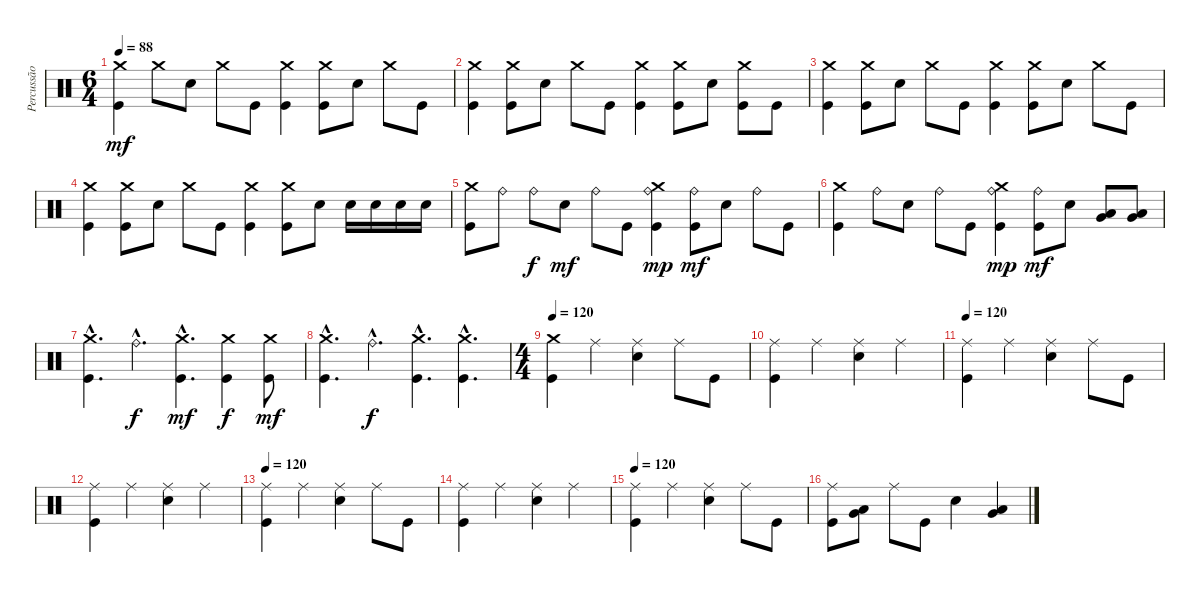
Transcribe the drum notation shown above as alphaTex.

\track ("Percussão" "Percussão") {instrument percussion}
\staff {score}
\articulation defaults
\ts (6 4)
\tempo 88
\clef neutral
\ks c
("Kick (hit)" "Crash medium (hit)").4{dy mf} "Crash medium (hit)".8 "Electric Snare (hit)".8 "Crash medium (hit)".8 "Kick (hit)".8 ("Kick (hit)" "Crash medium (hit)").4 ("Kick (hit)" "Crash medium (hit)").8 "Electric Snare (hit)".8 "Crash medium (hit)".8 "Kick (hit)".8 |
("Kick (hit)" "Crash medium (hit)").4 ("Kick (hit)" "Crash medium (hit)").8 "Electric Snare (hit)".8 "Crash medium (hit)".8 "Kick (hit)".8 ("Kick (hit)" "Crash medium (hit)").4 ("Kick (hit)" "Crash medium (hit)").8 "Electric Snare (hit)".8 ("Kick (hit)" "Crash medium (hit)").8 "Kick (hit)".8 |
("Kick (hit)" "Crash medium (hit)").4 ("Kick (hit)" "Crash medium (hit)").8 "Electric Snare (hit)".8 "Crash medium (hit)".8 "Kick (hit)".8 ("Kick (hit)" "Crash medium (hit)").4 ("Kick (hit)" "Crash medium (hit)").8 "Electric Snare (hit)".8 "Crash medium (hit)".8 "Kick (hit)".8 |
("Kick (hit)" "Crash medium (hit)").4 ("Kick (hit)" "Crash medium (hit)").8 "Electric Snare (hit)".8 "Crash medium (hit)".8 "Kick (hit)".8 ("Kick (hit)" "Crash medium (hit)").4 ("Kick (hit)" "Crash medium (hit)").8 "Electric Snare (hit)".8 "Electric Snare (hit)".16 "Electric Snare (hit)".16 "Electric Snare (hit)".16 "Electric Snare (hit)".16 |
("Kick (hit)" "Crash medium (hit)").8 "Ride (bell)".8 "Ride (bell)".8{dy f} "Electric Snare (hit)".8{dy mf} "Ride (bell)".8 "Kick (hit)".8 ("Kick (hit)" "Ride (bell)" "Crash medium (hit)").4{dy mp} ("Kick (hit)" "Ride (bell)").8{dy mf} "Electric Snare (hit)".8 "Ride (bell)".8 "Kick (hit)".8 |
("Kick (hit)" "Crash medium (hit)").4 "Ride (bell)".8 "Electric Snare (hit)".8 "Ride (bell)".8 "Kick (hit)".8 ("Kick (hit)" "Ride (bell)" "Crash medium (hit)").4{dy mp} ("Kick (hit)" "Ride (bell)").8{dy mf} "Electric Snare (hit)".8 ("Low Tom (hit)" "Very Low Tom (hit)").8 ("Very Low Tom (hit)" "Low Floor Tom (hit)").8 |
("Kick (hit)"{hac} "Crash medium (hit)"{hac}).4{d} "Ride (bell)"{hac}.4{d dy f} ("Kick (hit)"{hac} "Crash medium (hit)"{hac}).4{d dy mf} ("Kick (hit)" "Crash medium (hit)").4{dy f} ("Kick (hit)" "Crash medium (hit)").8{dy mf} |
("Kick (hit)"{hac} "Crash medium (hit)"{hac}).4{d} "Ride (bell)"{hac}.4{d dy f} ("Kick (hit)"{hac} "Crash medium (hit)"{hac}).4{d} ("Kick (hit)"{hac} "Crash medium (hit)"{hac}).4{d} |
\ts (4 4)
\tempo 120
("Crash medium (hit)" "Kick (hit)").4 "Ride (middle)".4 ("Electric Snare (hit)" "Ride (middle)").4 "Ride (middle)".8 "Kick (hit)".8 |
("Kick (hit)" "Ride (middle)").4 "Ride (middle)".4 ("Electric Snare (hit)" "Ride (middle)").4 "Ride (middle)".4 |
\tempo 120
("Kick (hit)" "Ride (middle)").4 "Ride (middle)".4 ("Electric Snare (hit)" "Ride (middle)").4 "Ride (middle)".8 "Kick (hit)".8 |
("Kick (hit)" "Ride (middle)").4 "Ride (middle)".4 ("Electric Snare (hit)" "Ride (middle)").4 "Ride (middle)".4 |
\tempo 120
("Kick (hit)" "Ride (middle)").4 "Ride (middle)".4 ("Electric Snare (hit)" "Ride (middle)").4 "Ride (middle)".8 "Kick (hit)".8 |
("Kick (hit)" "Ride (middle)").4 "Ride (middle)".4 ("Electric Snare (hit)" "Ride (middle)").4 "Ride (middle)".4 |
\tempo 120
("Kick (hit)" "Ride (middle)").4 "Ride (middle)".4 ("Electric Snare (hit)" "Ride (middle)").4 "Ride (middle)".8 "Kick (hit)".8 |
("Kick (hit)" "Ride (middle)").8 ("Very Low Tom (hit)" "Low Tom (hit)").8 "Ride (middle)".8 "Kick (hit)".8 "Electric Snare (hit)".4 ("Very Low Tom (hit)" "Low Tom (hit)").4
